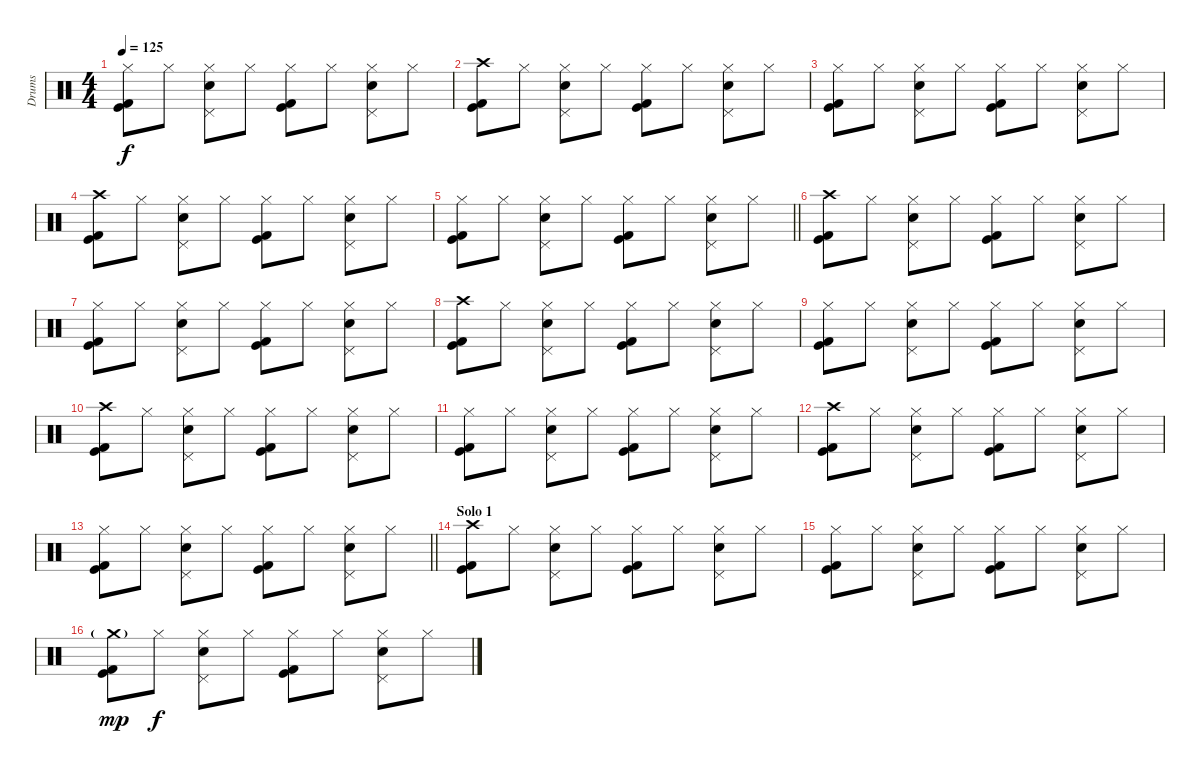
\track ("Drums" "Drums") {instrument percussion}
\staff {score}
\articulation defaults
\ts (4 4)
\tempo 125
\clef neutral
\ks c
("Hi-Hat (closed)" "Kick (hit)" "Kick (hit) 2").8{dy f} "Hi-Hat (closed)".8 ("Hi-Hat (closed)" "Pedal Hi-Hat (hit)" "Electric Snare (hit)").8 "Hi-Hat (closed)".8 ("Hi-Hat (closed)" "Kick (hit)" "Kick (hit) 2").8 "Hi-Hat (closed)".8 ("Hi-Hat (closed)" "Pedal Hi-Hat (hit)" "Electric Snare (hit)").8 "Hi-Hat (closed)".8 |
("Crash high (hit)" "Kick (hit)" "Kick (hit) 2").8 "Hi-Hat (closed)".8 ("Hi-Hat (closed)" "Pedal Hi-Hat (hit)" "Electric Snare (hit)").8 "Hi-Hat (closed)".8 ("Hi-Hat (closed)" "Kick (hit)" "Kick (hit) 2").8 "Hi-Hat (closed)".8 ("Hi-Hat (closed)" "Pedal Hi-Hat (hit)" "Electric Snare (hit)").8 "Hi-Hat (closed)".8 |
("Hi-Hat (closed)" "Kick (hit)" "Kick (hit) 2").8 "Hi-Hat (closed)".8 ("Hi-Hat (closed)" "Pedal Hi-Hat (hit)" "Electric Snare (hit)").8 "Hi-Hat (closed)".8 ("Hi-Hat (closed)" "Kick (hit)" "Kick (hit) 2").8 "Hi-Hat (closed)".8 ("Hi-Hat (closed)" "Pedal Hi-Hat (hit)" "Electric Snare (hit)").8 "Hi-Hat (closed)".8 |
("Crash high (hit)" "Kick (hit)" "Kick (hit) 2").8 "Hi-Hat (closed)".8 ("Hi-Hat (closed)" "Pedal Hi-Hat (hit)" "Electric Snare (hit)").8 "Hi-Hat (closed)".8 ("Hi-Hat (closed)" "Kick (hit)" "Kick (hit) 2").8 "Hi-Hat (closed)".8 ("Hi-Hat (closed)" "Pedal Hi-Hat (hit)" "Electric Snare (hit)").8 "Hi-Hat (closed)".8 |
\barLineRight lightlight
("Hi-Hat (closed)" "Kick (hit)" "Kick (hit) 2").8 "Hi-Hat (closed)".8 ("Hi-Hat (closed)" "Pedal Hi-Hat (hit)" "Electric Snare (hit)").8 "Hi-Hat (closed)".8 ("Hi-Hat (closed)" "Kick (hit)" "Kick (hit) 2").8 "Hi-Hat (closed)".8 ("Hi-Hat (closed)" "Pedal Hi-Hat (hit)" "Electric Snare (hit)").8 "Hi-Hat (closed)".8 |
\section ("" "")
("Crash high (hit)" "Kick (hit)" "Kick (hit) 2").8 "Hi-Hat (closed)".8 ("Hi-Hat (closed)" "Pedal Hi-Hat (hit)" "Electric Snare (hit)").8 "Hi-Hat (closed)".8 ("Hi-Hat (closed)" "Kick (hit)" "Kick (hit) 2").8 "Hi-Hat (closed)".8 ("Hi-Hat (closed)" "Pedal Hi-Hat (hit)" "Electric Snare (hit)").8 "Hi-Hat (closed)".8 |
("Hi-Hat (closed)" "Kick (hit)" "Kick (hit) 2").8 "Hi-Hat (closed)".8 ("Hi-Hat (closed)" "Pedal Hi-Hat (hit)" "Electric Snare (hit)").8 "Hi-Hat (closed)".8 ("Hi-Hat (closed)" "Kick (hit)" "Kick (hit) 2").8 "Hi-Hat (closed)".8 ("Hi-Hat (closed)" "Pedal Hi-Hat (hit)" "Electric Snare (hit)").8 "Hi-Hat (closed)".8 |
("Crash high (hit)" "Kick (hit)" "Kick (hit) 2").8 "Hi-Hat (closed)".8 ("Hi-Hat (closed)" "Pedal Hi-Hat (hit)" "Electric Snare (hit)").8 "Hi-Hat (closed)".8 ("Hi-Hat (closed)" "Kick (hit)" "Kick (hit) 2").8 "Hi-Hat (closed)".8 ("Hi-Hat (closed)" "Pedal Hi-Hat (hit)" "Electric Snare (hit)").8 "Hi-Hat (closed)".8 |
("Hi-Hat (closed)" "Kick (hit)" "Kick (hit) 2").8 "Hi-Hat (closed)".8 ("Hi-Hat (closed)" "Pedal Hi-Hat (hit)" "Electric Snare (hit)").8 "Hi-Hat (closed)".8 ("Hi-Hat (closed)" "Kick (hit)" "Kick (hit) 2").8 "Hi-Hat (closed)".8 ("Hi-Hat (closed)" "Pedal Hi-Hat (hit)" "Electric Snare (hit)").8 "Hi-Hat (closed)".8 |
("Crash high (hit)" "Kick (hit)" "Kick (hit) 2").8 "Hi-Hat (closed)".8 ("Hi-Hat (closed)" "Pedal Hi-Hat (hit)" "Electric Snare (hit)").8 "Hi-Hat (closed)".8 ("Hi-Hat (closed)" "Kick (hit)" "Kick (hit) 2").8 "Hi-Hat (closed)".8 ("Hi-Hat (closed)" "Pedal Hi-Hat (hit)" "Electric Snare (hit)").8 "Hi-Hat (closed)".8 |
("Hi-Hat (closed)" "Kick (hit)" "Kick (hit) 2").8 "Hi-Hat (closed)".8 ("Hi-Hat (closed)" "Pedal Hi-Hat (hit)" "Electric Snare (hit)").8 "Hi-Hat (closed)".8 ("Hi-Hat (closed)" "Kick (hit)" "Kick (hit) 2").8 "Hi-Hat (closed)".8 ("Hi-Hat (closed)" "Pedal Hi-Hat (hit)" "Electric Snare (hit)").8 "Hi-Hat (closed)".8 |
("Crash high (hit)" "Kick (hit)" "Kick (hit) 2").8 "Hi-Hat (closed)".8 ("Hi-Hat (closed)" "Pedal Hi-Hat (hit)" "Electric Snare (hit)").8 "Hi-Hat (closed)".8 ("Hi-Hat (closed)" "Kick (hit)" "Kick (hit) 2").8 "Hi-Hat (closed)".8 ("Hi-Hat (closed)" "Pedal Hi-Hat (hit)" "Electric Snare (hit)").8 "Hi-Hat (closed)".8 |
\barLineRight lightlight
("Hi-Hat (closed)" "Kick (hit)" "Kick (hit) 2").8 "Hi-Hat (closed)".8 ("Hi-Hat (closed)" "Pedal Hi-Hat (hit)" "Electric Snare (hit)").8 "Hi-Hat (closed)".8 ("Hi-Hat (closed)" "Kick (hit)" "Kick (hit) 2").8 "Hi-Hat (closed)".8 ("Hi-Hat (closed)" "Pedal Hi-Hat (hit)" "Electric Snare (hit)").8 "Hi-Hat (closed)".8 |
\section ("" "Solo 1")
("Crash high (hit)" "Kick (hit)" "Kick (hit) 2").8 "Hi-Hat (closed)".8 ("Hi-Hat (closed)" "Pedal Hi-Hat (hit)" "Electric Snare (hit)").8 "Hi-Hat (closed)".8 ("Hi-Hat (closed)" "Kick (hit)" "Kick (hit) 2").8 "Hi-Hat (closed)".8 ("Hi-Hat (closed)" "Pedal Hi-Hat (hit)" "Electric Snare (hit)").8 "Hi-Hat (closed)".8 |
("Hi-Hat (closed)" "Kick (hit)" "Kick (hit) 2").8 "Hi-Hat (closed)".8 ("Hi-Hat (closed)" "Pedal Hi-Hat (hit)" "Electric Snare (hit)").8 "Hi-Hat (closed)".8 ("Hi-Hat (closed)" "Kick (hit)" "Kick (hit) 2").8 "Hi-Hat (closed)".8 ("Hi-Hat (closed)" "Pedal Hi-Hat (hit)" "Electric Snare (hit)").8 "Hi-Hat (closed)".8 |
("Crash medium (hit)"{g} "Kick (hit)" "Kick (hit) 2").8{dy mp} "Hi-Hat (closed)".8{dy f} ("Hi-Hat (closed)" "Pedal Hi-Hat (hit)" "Electric Snare (hit)").8 "Hi-Hat (closed)".8 ("Hi-Hat (closed)" "Kick (hit)" "Kick (hit) 2").8 "Hi-Hat (closed)".8 ("Hi-Hat (closed)" "Pedal Hi-Hat (hit)" "Electric Snare (hit)").8 "Hi-Hat (closed)".8
